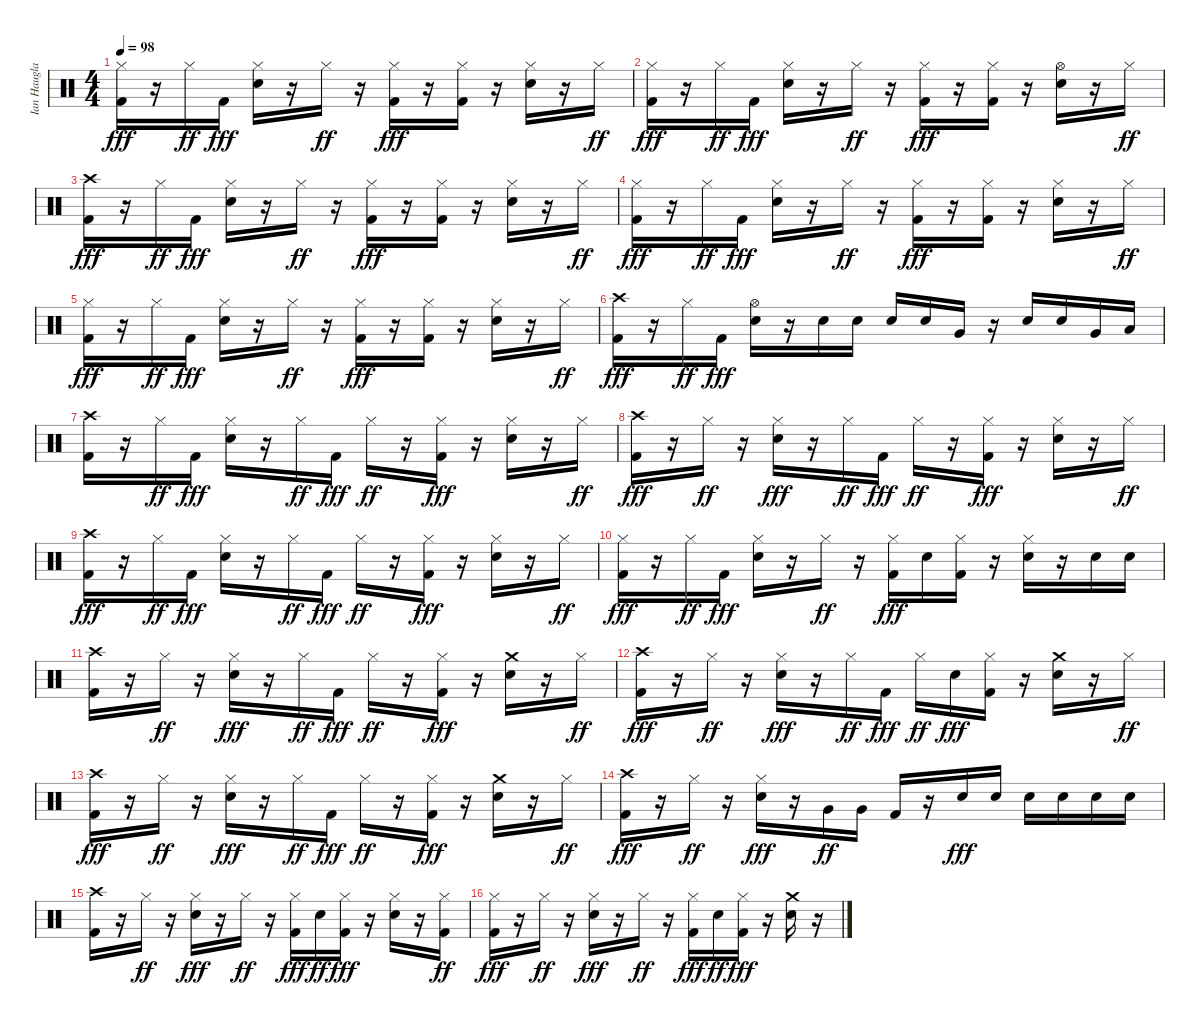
\track ("Ian Haugland" "Ian Haugla") {instrument percussion}
\staff {score}
\articulation defaults
\ts (4 4)
\tempo 98
\clef neutral
\ks c
("Hi-Hat (closed)" "Kick (hit) 2").16{dy fff} r.16 "Hi-Hat (closed)".16{dy ff} "Kick (hit) 2".16{dy fff} ("Hi-Hat (closed)" "Electric Snare (hit)").16 r.16 "Hi-Hat (closed)".16{dy ff} r.16 ("Hi-Hat (closed)" "Kick (hit) 2").16{dy fff} r.16 ("Hi-Hat (closed)" "Kick (hit) 2").16 r.16 ("Hi-Hat (closed)" "Electric Snare (hit)").16 r.16 "Hi-Hat (closed)".16{dy ff} |
("Hi-Hat (closed)" "Kick (hit) 2").16{dy fff} r.16 "Hi-Hat (closed)".16{dy ff} "Kick (hit) 2".16{dy fff} ("Hi-Hat (closed)" "Electric Snare (hit)").16 r.16 "Hi-Hat (closed)".16{dy ff} r.16 ("Hi-Hat (closed)" "Kick (hit) 2").16{dy fff} r.16 ("Hi-Hat (closed)" "Kick (hit) 2").16 r.16 ("Hi-Hat (open)" "Electric Snare (hit)").16 r.16 "Hi-Hat (closed)".16{dy ff} |
("Crash high (hit)" "Kick (hit) 2").16{dy fff} r.16 "Hi-Hat (closed)".16{dy ff} "Kick (hit) 2".16{dy fff} ("Hi-Hat (closed)" "Electric Snare (hit)").16 r.16 "Hi-Hat (closed)".16{dy ff} r.16 ("Hi-Hat (closed)" "Kick (hit) 2").16{dy fff} r.16 ("Hi-Hat (closed)" "Kick (hit) 2").16 r.16 ("Hi-Hat (closed)" "Electric Snare (hit)").16 r.16 "Hi-Hat (closed)".16{dy ff} |
("Hi-Hat (closed)" "Kick (hit) 2").16{dy fff} r.16 "Hi-Hat (closed)".16{dy ff} "Kick (hit) 2".16{dy fff} ("Hi-Hat (closed)" "Electric Snare (hit)").16 r.16 "Hi-Hat (closed)".16{dy ff} r.16 ("Hi-Hat (closed)" "Kick (hit) 2").16{dy fff} r.16 ("Hi-Hat (closed)" "Kick (hit) 2").16 r.16 ("Hi-Hat (closed)" "Electric Snare (hit)").16 r.16 "Hi-Hat (closed)".16{dy ff} |
("Hi-Hat (closed)" "Kick (hit) 2").16{dy fff} r.16 "Hi-Hat (closed)".16{dy ff} "Kick (hit) 2".16{dy fff} ("Hi-Hat (closed)" "Electric Snare (hit)").16 r.16 "Hi-Hat (closed)".16{dy ff} r.16 ("Hi-Hat (closed)" "Kick (hit) 2").16{dy fff} r.16 ("Hi-Hat (closed)" "Kick (hit) 2").16 r.16 ("Hi-Hat (closed)" "Electric Snare (hit)").16 r.16 "Hi-Hat (closed)".16{dy ff} |
("Crash high (hit)" "Kick (hit) 2").16{dy fff} r.16 "Hi-Hat (closed)".16{dy ff} "Kick (hit) 2".16{dy fff} ("Hi-Hat (open)" "Electric Snare (hit)").16 r.16 "Electric Snare (hit)".16 "Electric Snare (hit)".16 "Electric Snare (hit)".16 "Electric Snare (hit)".16 "Very Low Tom (hit)".16 r.16 "Electric Snare (hit)".16 "Electric Snare (hit)".16 "Very Low Tom (hit)".16 "Low Floor Tom (hit)".16 |
("Crash high (hit)" "Kick (hit) 2").16 r.16 "Hi-Hat (closed)".16{dy ff} "Kick (hit) 2".16{dy fff} ("Hi-Hat (closed)" "Electric Snare (hit)").16 r.16 "Hi-Hat (closed)".16{dy ff} "Kick (hit) 2".16{dy fff} "Hi-Hat (closed)".16{dy ff} r.16 ("Hi-Hat (closed)" "Kick (hit) 2").16{dy fff} r.16 ("Hi-Hat (closed)" "Electric Snare (hit)").16 r.16 "Hi-Hat (closed)".16{dy ff} |
("Crash high (hit)" "Kick (hit) 2").16{dy fff} r.16 "Hi-Hat (closed)".16{dy ff} r.16 ("Hi-Hat (closed)" "Electric Snare (hit)").16{dy fff} r.16 "Hi-Hat (closed)".16{dy ff} "Kick (hit) 2".16{dy fff} "Hi-Hat (closed)".16{dy ff} r.16 ("Hi-Hat (closed)" "Kick (hit) 2").16{dy fff} r.16 ("Hi-Hat (closed)" "Electric Snare (hit)").16 r.16 "Hi-Hat (closed)".16{dy ff} |
("Crash high (hit)" "Kick (hit) 2").16{dy fff} r.16 "Hi-Hat (closed)".16{dy ff} "Kick (hit) 2".16{dy fff} ("Hi-Hat (closed)" "Electric Snare (hit)").16 r.16 "Hi-Hat (closed)".16{dy ff} "Kick (hit) 2".16{dy fff} "Hi-Hat (closed)".16{dy ff} r.16 ("Hi-Hat (closed)" "Kick (hit) 2").16{dy fff} r.16 ("Hi-Hat (closed)" "Electric Snare (hit)").16 r.16 "Hi-Hat (closed)".16{dy ff} |
("Hi-Hat (closed)" "Kick (hit) 2").16{dy fff} r.16 "Hi-Hat (closed)".16{dy ff} "Kick (hit) 2".16{dy fff} ("Hi-Hat (closed)" "Electric Snare (hit)").16 r.16 "Hi-Hat (closed)".16{dy ff} r.16 ("Hi-Hat (closed)" "Kick (hit) 2").16{dy fff} "Electric Snare (hit)".16 ("Hi-Hat (closed)" "Kick (hit) 2").16 r.16 ("Hi-Hat (closed)" "Electric Snare (hit)").16 r.16 "Electric Snare (hit)".16 "Electric Snare (hit)".16 |
("Crash high (hit)" "Kick (hit) 2").16 r.16 "Hi-Hat (closed)".16{dy ff} r.16 ("Hi-Hat (closed)" "Electric Snare (hit)").16{dy fff} r.16 "Hi-Hat (closed)".16{dy ff} "Kick (hit) 2".16{dy fff} "Hi-Hat (closed)".16{dy ff} r.16 ("Hi-Hat (closed)" "Kick (hit) 2").16{dy fff} r.16 ("Crash medium (hit)" "Electric Snare (hit)").16 r.16 "Hi-Hat (closed)".16{dy ff} |
("Crash high (hit)" "Kick (hit) 2").16{dy fff} r.16 "Hi-Hat (closed)".16{dy ff} r.16 ("Hi-Hat (closed)" "Electric Snare (hit)").16{dy fff} r.16 "Hi-Hat (closed)".16{dy ff} "Kick (hit) 2".16{dy fff} "Hi-Hat (closed)".16{dy ff} "Electric Snare (hit)".16{dy fff} ("Hi-Hat (closed)" "Kick (hit) 2").16 r.16 ("Crash medium (hit)" "Electric Snare (hit)").16 r.16 "Hi-Hat (closed)".16{dy ff} |
("Crash high (hit)" "Kick (hit) 2").16{dy fff} r.16 "Hi-Hat (closed)".16{dy ff} r.16 ("Hi-Hat (closed)" "Electric Snare (hit)").16{dy fff} r.16 "Hi-Hat (closed)".16{dy ff} "Kick (hit) 2".16{dy fff} "Hi-Hat (closed)".16{dy ff} r.16 ("Hi-Hat (closed)" "Kick (hit) 2").16{dy fff} r.16 ("Crash medium (hit)" "Electric Snare (hit)").16 r.16 "Hi-Hat (closed)".16{dy ff} |
("Crash high (hit)" "Kick (hit) 2").16{dy fff} r.16 "Hi-Hat (closed)".16{dy ff} r.16 ("Hi-Hat (closed)" "Electric Snare (hit)").16{dy fff} r.16 "Very Low Tom (hit)".16{dy ff} "Very Low Tom (hit)".16 "Kick (hit) 2".16 r.16 "Electric Snare (hit)".16{dy fff} "Electric Snare (hit)".16 "Electric Snare (hit)".16 "Electric Snare (hit)".16 "Electric Snare (hit)".16 "Electric Snare (hit)".16 |
("Crash high (hit)" "Kick (hit) 2").16 r.16 "Hi-Hat (closed)".16{dy ff} r.16 ("Hi-Hat (closed)" "Electric Snare (hit)").16{dy fff} r.16 "Hi-Hat (closed)".16{dy ff} r.16 ("Hi-Hat (closed)" "Kick (hit) 2").16{dy fff} "Electric Snare (hit)".16{dy ff} ("Hi-Hat (closed)" "Kick (hit) 2").16{dy fff} r.16 ("Hi-Hat (closed)" "Electric Snare (hit)").16 r.16 ("Hi-Hat (closed)" "Kick (hit) 2").16{dy ff} |
("Hi-Hat (closed)" "Kick (hit) 2").16{dy fff} r.16 "Hi-Hat (closed)".16{dy ff} r.16 ("Hi-Hat (closed)" "Electric Snare (hit)").16{dy fff} r.16 "Hi-Hat (closed)".16{dy ff} r.16 ("Hi-Hat (closed)" "Kick (hit) 2").16{dy fff} "Electric Snare (hit)".16{dy ff} ("Hi-Hat (closed)" "Kick (hit) 2").16{dy fff} r.16 ("Crash medium (hit)" "Electric Snare (hit)").16 r.16
